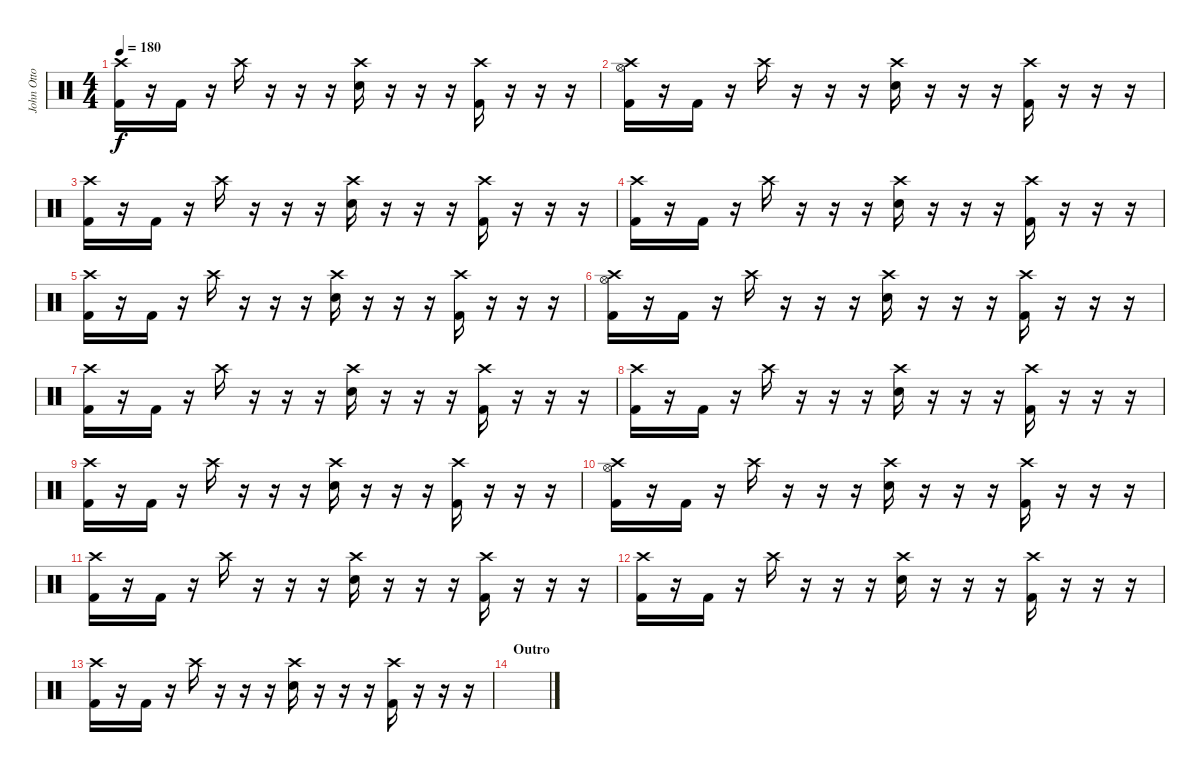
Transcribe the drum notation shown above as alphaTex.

\track ("John Otto" "John Otto") {instrument percussion}
\staff {score}
\articulation defaults
\ts (4 4)
\tempo 180
\clef neutral
\ks c
("Crash high (hit)" "Kick (hit) 2").16{dy f} r.16 "Kick (hit) 2".16 r.16 "Crash high (hit)".16 r.16 r.16 r.16 ("Crash high (hit)" "Snare (hit) 2").16 r.16 r.16 r.16 ("Crash high (hit)" "Kick (hit) 2").16 r.16 r.16 r.16 |
("Crash high (hit)" "Hi-Hat (open)" "Kick (hit) 2").16 r.16 "Kick (hit) 2".16 r.16 "Crash high (hit)".16 r.16 r.16 r.16 ("Crash high (hit)" "Snare (hit) 2").16 r.16 r.16 r.16 ("Crash high (hit)" "Kick (hit) 2").16 r.16 r.16 r.16 |
("Crash high (hit)" "Kick (hit) 2").16 r.16 "Kick (hit) 2".16 r.16 "Crash high (hit)".16 r.16 r.16 r.16 ("Crash high (hit)" "Snare (hit) 2").16 r.16 r.16 r.16 ("Crash high (hit)" "Kick (hit) 2").16 r.16 r.16 r.16 |
("Crash high (hit)" "Kick (hit) 2").16 r.16 "Kick (hit) 2".16 r.16 "Crash high (hit)".16 r.16 r.16 r.16 ("Crash high (hit)" "Snare (hit) 2").16 r.16 r.16 r.16 ("Crash high (hit)" "Kick (hit) 2").16 r.16 r.16 r.16 |
("Crash high (hit)" "Kick (hit) 2").16 r.16 "Kick (hit) 2".16 r.16 "Crash high (hit)".16 r.16 r.16 r.16 ("Crash high (hit)" "Snare (hit) 2").16 r.16 r.16 r.16 ("Crash high (hit)" "Kick (hit) 2").16 r.16 r.16 r.16 |
("Crash high (hit)" "Hi-Hat (open)" "Kick (hit) 2").16 r.16 "Kick (hit) 2".16 r.16 "Crash high (hit)".16 r.16 r.16 r.16 ("Crash high (hit)" "Snare (hit) 2").16 r.16 r.16 r.16 ("Crash high (hit)" "Kick (hit) 2").16 r.16 r.16 r.16 |
("Crash high (hit)" "Kick (hit) 2").16 r.16 "Kick (hit) 2".16 r.16 "Crash high (hit)".16 r.16 r.16 r.16 ("Crash high (hit)" "Snare (hit) 2").16 r.16 r.16 r.16 ("Crash high (hit)" "Kick (hit) 2").16 r.16 r.16 r.16 |
("Crash high (hit)" "Kick (hit) 2").16 r.16 "Kick (hit) 2".16 r.16 "Crash high (hit)".16 r.16 r.16 r.16 ("Crash high (hit)" "Snare (hit) 2").16 r.16 r.16 r.16 ("Crash high (hit)" "Kick (hit) 2").16 r.16 r.16 r.16 |
("Crash high (hit)" "Kick (hit) 2").16 r.16 "Kick (hit) 2".16 r.16 "Crash high (hit)".16 r.16 r.16 r.16 ("Crash high (hit)" "Snare (hit) 2").16 r.16 r.16 r.16 ("Crash high (hit)" "Kick (hit) 2").16 r.16 r.16 r.16 |
("Crash high (hit)" "Hi-Hat (open)" "Kick (hit) 2").16 r.16 "Kick (hit) 2".16 r.16 "Crash high (hit)".16 r.16 r.16 r.16 ("Crash high (hit)" "Snare (hit) 2").16 r.16 r.16 r.16 ("Crash high (hit)" "Kick (hit) 2").16 r.16 r.16 r.16 |
("Crash high (hit)" "Kick (hit) 2").16 r.16 "Kick (hit) 2".16 r.16 "Crash high (hit)".16 r.16 r.16 r.16 ("Crash high (hit)" "Snare (hit) 2").16 r.16 r.16 r.16 ("Crash high (hit)" "Kick (hit) 2").16 r.16 r.16 r.16 |
("Crash high (hit)" "Kick (hit) 2").16 r.16 "Kick (hit) 2".16 r.16 "Crash high (hit)".16 r.16 r.16 r.16 ("Crash high (hit)" "Snare (hit) 2").16 r.16 r.16 r.16 ("Crash high (hit)" "Kick (hit) 2").16 r.16 r.16 r.16 |
("Crash high (hit)" "Kick (hit) 2").16 r.16 "Kick (hit) 2".16 r.16 "Crash high (hit)".16 r.16 r.16 r.16 ("Crash high (hit)" "Snare (hit) 2").16 r.16 r.16 r.16 ("Crash high (hit)" "Kick (hit) 2").16 r.16 r.16 r.16 |
\section ("" "Outro")
